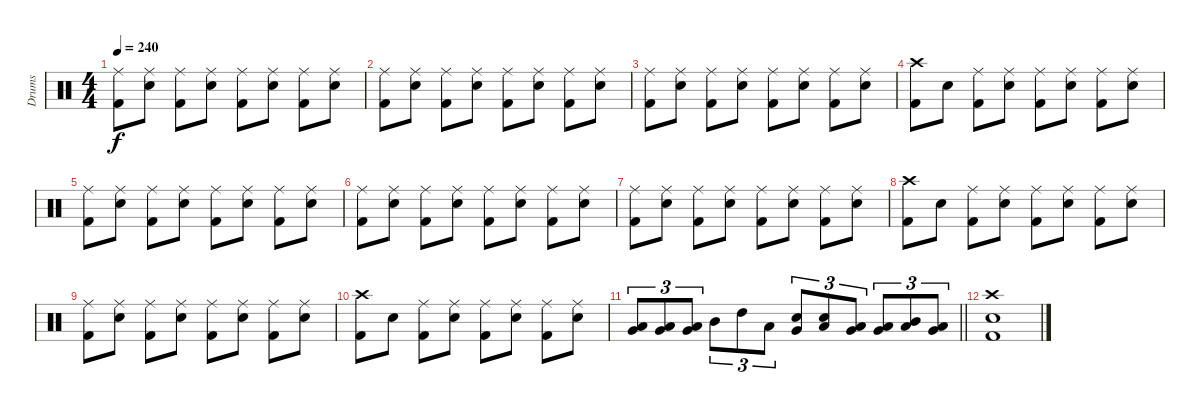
\track ("Drums" "Drums") {instrument percussion}
\staff {score}
\articulation defaults
\ts (4 4)
\tempo 240
\clef neutral
\ks c
("Ride (middle)" "Kick (hit) 2").8{dy f} ("Ride (middle)" "Electric Snare (hit)").8 ("Ride (middle)" "Kick (hit) 2").8 ("Ride (middle)" "Electric Snare (hit)").8 ("Ride (middle)" "Kick (hit) 2").8 ("Ride (middle)" "Electric Snare (hit)").8 ("Ride (middle)" "Kick (hit) 2").8 ("Ride (middle)" "Electric Snare (hit)").8 |
("Ride (middle)" "Kick (hit) 2").8 ("Ride (middle)" "Electric Snare (hit)").8 ("Ride (middle)" "Kick (hit) 2").8 ("Ride (middle)" "Electric Snare (hit)").8 ("Ride (middle)" "Kick (hit) 2").8 ("Ride (middle)" "Electric Snare (hit)").8 ("Ride (middle)" "Kick (hit) 2").8 ("Ride (middle)" "Electric Snare (hit)").8 |
("Ride (middle)" "Kick (hit) 2").8 ("Ride (middle)" "Electric Snare (hit)").8 ("Ride (middle)" "Kick (hit) 2").8 ("Ride (middle)" "Electric Snare (hit)").8 ("Ride (middle)" "Kick (hit) 2").8 ("Ride (middle)" "Electric Snare (hit)").8 ("Ride (middle)" "Kick (hit) 2").8 ("Ride (middle)" "Electric Snare (hit)").8 |
("Crash high (hit)" "Kick (hit) 2").8 "Electric Snare (hit)".8 ("Ride (middle)" "Kick (hit) 2").8 ("Ride (middle)" "Electric Snare (hit)").8 ("Ride (middle)" "Kick (hit) 2").8 ("Ride (middle)" "Electric Snare (hit)").8 ("Ride (middle)" "Kick (hit) 2").8 ("Ride (middle)" "Electric Snare (hit)").8 |
("Ride (middle)" "Kick (hit) 2").8 ("Ride (middle)" "Electric Snare (hit)").8 ("Ride (middle)" "Kick (hit) 2").8 ("Ride (middle)" "Electric Snare (hit)").8 ("Ride (middle)" "Kick (hit) 2").8 ("Ride (middle)" "Electric Snare (hit)").8 ("Ride (middle)" "Kick (hit) 2").8 ("Ride (middle)" "Electric Snare (hit)").8 |
("Ride (middle)" "Kick (hit) 2").8 ("Ride (middle)" "Electric Snare (hit)").8 ("Ride (middle)" "Kick (hit) 2").8 ("Ride (middle)" "Electric Snare (hit)").8 ("Ride (middle)" "Kick (hit) 2").8 ("Ride (middle)" "Electric Snare (hit)").8 ("Ride (middle)" "Kick (hit) 2").8 ("Ride (middle)" "Electric Snare (hit)").8 |
("Ride (middle)" "Kick (hit) 2").8 ("Ride (middle)" "Electric Snare (hit)").8 ("Ride (middle)" "Kick (hit) 2").8 ("Ride (middle)" "Electric Snare (hit)").8 ("Ride (middle)" "Kick (hit) 2").8 ("Ride (middle)" "Electric Snare (hit)").8 ("Ride (middle)" "Kick (hit) 2").8 ("Ride (middle)" "Electric Snare (hit)").8 |
("Crash high (hit)" "Kick (hit) 2").8 "Electric Snare (hit)".8 ("Ride (middle)" "Kick (hit) 2").8 ("Ride (middle)" "Electric Snare (hit)").8 ("Ride (middle)" "Kick (hit) 2").8 ("Ride (middle)" "Electric Snare (hit)").8 ("Ride (middle)" "Kick (hit) 2").8 ("Ride (middle)" "Electric Snare (hit)").8 |
("Ride (middle)" "Kick (hit) 2").8 ("Ride (middle)" "Electric Snare (hit)").8 ("Ride (middle)" "Kick (hit) 2").8 ("Ride (middle)" "Electric Snare (hit)").8 ("Ride (middle)" "Kick (hit) 2").8 ("Ride (middle)" "Electric Snare (hit)").8 ("Ride (middle)" "Kick (hit) 2").8 ("Ride (middle)" "Electric Snare (hit)").8 |
("Crash high (hit)" "Kick (hit) 2").8 "Electric Snare (hit)".8 ("Ride (middle)" "Kick (hit) 2").8 ("Ride (middle)" "Electric Snare (hit)").8 ("Ride (middle)" "Kick (hit) 2").8 ("Ride (middle)" "Electric Snare (hit)").8 ("Ride (middle)" "Kick (hit) 2").8 ("Ride (middle)" "Electric Snare (hit)").8 |
\barLineRight lightlight
("Low Tom (hit)" "Very Low Tom (hit)").8{tu (3 2)} ("Very Low Tom (hit)" "Low Floor Tom (hit)").8{tu (3 2)} ("Low Tom (hit)" "Very Low Tom (hit)").8{tu (3 2)} "Mid Tom (hit)".8{tu (3 2)} "High Tom (hit)".8{tu (3 2)} "Low Tom (hit)".8{tu (3 2)} ("Very Low Tom (hit)" "Electric Snare (hit)").8{tu (3 2)} ("Low Tom (hit)" "Electric Snare (hit)").8{tu (3 2)} ("Very Low Tom (hit)" "Low Floor Tom (hit)").8{tu (3 2)} ("Low Tom (hit)" "Very Low Tom (hit)").8{tu (3 2)} ("Mid Tom (hit)" "Low Tom (hit)").8{tu (3 2)} ("Very Low Tom (hit)" "Low Floor Tom (hit)").8{tu (3 2)} |
("Crash high (hit)" "Electric Snare (hit)" "Kick (hit) 2").1
